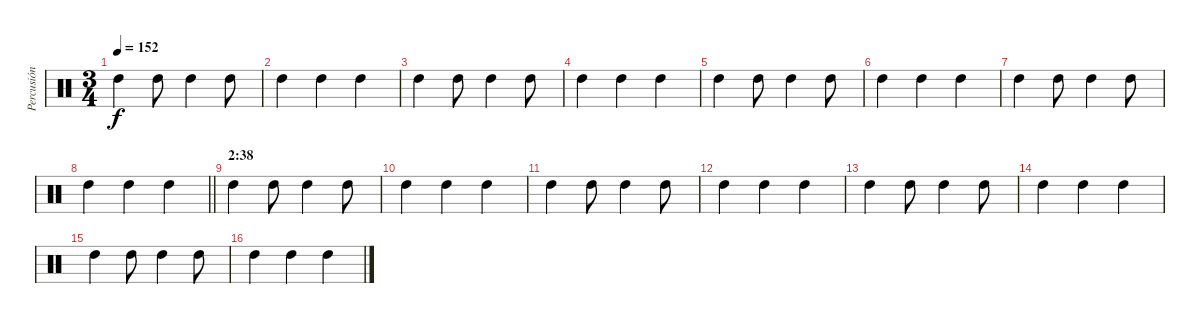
\track ("Percusión" "Percusión") {instrument percussion}
\staff {score}
\articulation defaults
\ts (3 4)
\tempo 152
\clef neutral
\ks c "High Tom (hit)".4{dy f} "High Tom (hit)".8 "High Tom (hit)".4 "High Tom (hit)".8
|
"High Tom (hit)".4 "High Tom (hit)".4 "High Tom (hit)".4 |
"High Tom (hit)".4 "High Tom (hit)".8 "High Tom (hit)".4 "High Tom (hit)".8 |
"High Tom (hit)".4 "High Tom (hit)".4 "High Tom (hit)".4 |
"High Tom (hit)".4 "High Tom (hit)".8 "High Tom (hit)".4 "High Tom (hit)".8 |
"High Tom (hit)".4 "High Tom (hit)".4 "High Tom (hit)".4 |
"High Tom (hit)".4 "High Tom (hit)".8 "High Tom (hit)".4 "High Tom (hit)".8 |
\barLineRight lightlight "High Tom (hit)".4 "High Tom (hit)".4 "High Tom (hit)".4
|
\section ("" "2:38")
"High Tom (hit)".4 "High Tom (hit)".8 "High Tom (hit)".4 "High Tom (hit)".8 |
"High Tom (hit)".4 "High Tom (hit)".4 "High Tom (hit)".4 |
"High Tom (hit)".4 "High Tom (hit)".8 "High Tom (hit)".4 "High Tom (hit)".8 |
"High Tom (hit)".4 "High Tom (hit)".4 "High Tom (hit)".4 |
"High Tom (hit)".4 "High Tom (hit)".8 "High Tom (hit)".4 "High Tom (hit)".8 |
"High Tom (hit)".4 "High Tom (hit)".4 "High Tom (hit)".4 |
"High Tom (hit)".4 "High Tom (hit)".8 "High Tom (hit)".4 "High Tom (hit)".8 |
"High Tom (hit)".4 "High Tom (hit)".4 "High Tom (hit)".4
